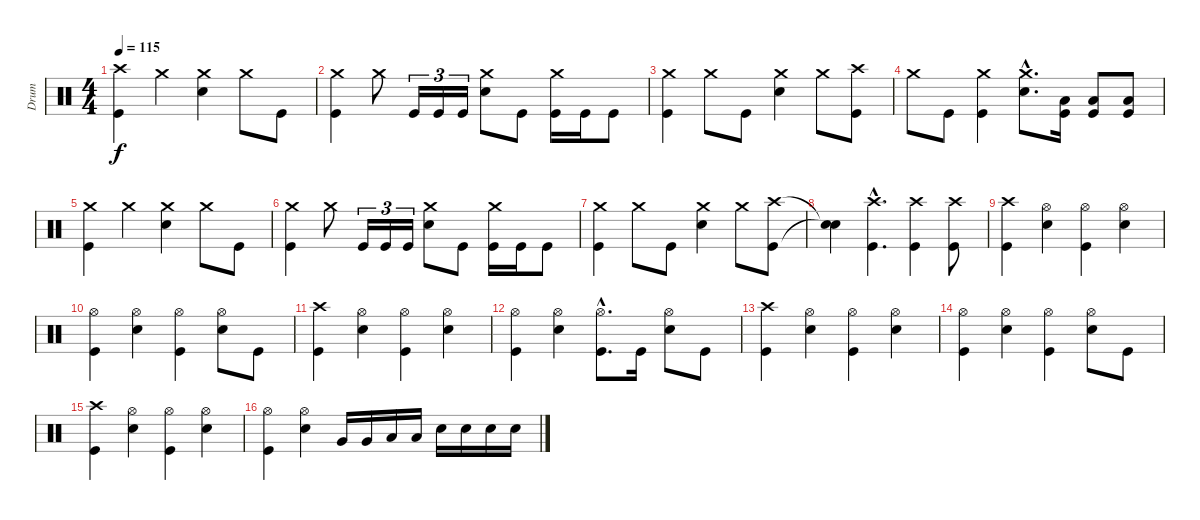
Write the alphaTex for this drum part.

\track ("Drum" "Drum") {instrument percussion}
\staff {score}
\articulation defaults
\ts (4 4)
\tempo 115
\clef neutral
\ks c
("Kick (hit)" "Crash high (hit)").4{dy f} "Crash medium (hit)".4 ("Crash medium (hit)" "Snare (hit) 2").4 "Crash medium (hit)".8 "Kick (hit)".8 |
("Kick (hit)" "Crash medium (hit)").4 "Crash medium (hit)".8 "Kick (hit)".16{tu (3 2)} "Kick (hit)".16{tu (3 2)} "Kick (hit)".16{tu (3 2)} ("Crash medium (hit)" "Snare (hit) 2").8 "Kick (hit)".8 ("Kick (hit)" "Crash medium (hit)").16 "Kick (hit)".16 "Kick (hit)".8 |
("Kick (hit)" "Crash medium (hit)").4 "Crash medium (hit)".8 "Kick (hit)".8 ("Crash medium (hit)" "Snare (hit) 2").4 "Crash medium (hit)".8 ("Kick (hit)" "Crash high (hit)").8 |
"Crash medium (hit)".8 "Kick (hit)".8 ("Kick (hit)" "Crash medium (hit)").4 ("Crash medium (hit)"{hac} "Snare (hit) 2"{hac}).8{d} ("Kick (hit)" "Low Floor Tom (hit)").16 ("Kick (hit)" "Low Floor Tom (hit)").8 ("Kick (hit)" "Low Floor Tom (hit)").8 |
("Kick (hit)" "Crash medium (hit)").4 "Crash medium (hit)".4 ("Crash medium (hit)" "Snare (hit) 2").4 "Crash medium (hit)".8 "Kick (hit)".8 |
("Kick (hit)" "Crash medium (hit)").4 "Crash medium (hit)".8 "Kick (hit)".16{tu (3 2)} "Kick (hit)".16{tu (3 2)} "Kick (hit)".16{tu (3 2)} ("Crash medium (hit)" "Snare (hit) 2").8 "Kick (hit)".8 ("Kick (hit)" "Crash medium (hit)").16 "Kick (hit)".16 "Kick (hit)".8 |
("Kick (hit)" "Crash medium (hit)").4 "Crash medium (hit)".8 "Kick (hit)".8 ("Crash medium (hit)" "Snare (hit) 2").4 "Crash medium (hit)".8 ("Kick (hit)" "Crash high (hit)").8 |
("Snare (hit)"{t} "Snare (hit)"{t}).4 ("Kick (hit)"{hac} "Crash high (hit)"{hac}).4{d} ("Kick (hit)" "Crash high (hit)").4 ("Kick (hit)" "Crash high (hit)").8 |
("Kick (hit)" "Crash high (hit)").4 ("Hi-Hat (open)" "Snare (hit) 2").4 ("Kick (hit)" "Hi-Hat (open)").4 ("Hi-Hat (open)" "Snare (hit) 2").4 |
("Kick (hit)" "Hi-Hat (open)").4 ("Hi-Hat (open)" "Snare (hit) 2").4 ("Kick (hit)" "Hi-Hat (open)").4 ("Hi-Hat (open)" "Snare (hit) 2").8 "Kick (hit)".8 |
("Kick (hit)" "Crash high (hit)").4 ("Hi-Hat (open)" "Snare (hit) 2").4 ("Kick (hit)" "Hi-Hat (open)").4 ("Hi-Hat (open)" "Snare (hit) 2").4 |
("Kick (hit)" "Hi-Hat (open)").4 ("Hi-Hat (open)" "Snare (hit) 2").4 ("Kick (hit)"{hac} "Hi-Hat (open)"{hac}).8{d} "Kick (hit)".16 ("Hi-Hat (open)" "Snare (hit) 2").8 "Kick (hit)".8 |
("Kick (hit)" "Crash high (hit)").4 ("Hi-Hat (open)" "Snare (hit) 2").4 ("Kick (hit)" "Hi-Hat (open)").4 ("Hi-Hat (open)" "Snare (hit) 2").4 |
("Kick (hit)" "Hi-Hat (open)").4 ("Hi-Hat (open)" "Snare (hit) 2").4 ("Kick (hit)" "Hi-Hat (open)").4 ("Hi-Hat (open)" "Snare (hit) 2").8 "Kick (hit)".8 |
("Kick (hit)" "Crash high (hit)").4 ("Hi-Hat (open)" "Snare (hit) 2").4 ("Kick (hit)" "Hi-Hat (open)").4 ("Hi-Hat (open)" "Snare (hit) 2").4 |
("Kick (hit)" "Hi-Hat (open)").4 ("Hi-Hat (open)" "Snare (hit) 2").4 "Very Low Tom (hit)".16 "Very Low Tom (hit)".16 "Low Floor Tom (hit)".16 "Low Floor Tom (hit)".16 "Snare (hit) 2".16 "Snare (hit) 2".16 "Snare (hit) 2".16 "Snare (hit) 2".16
